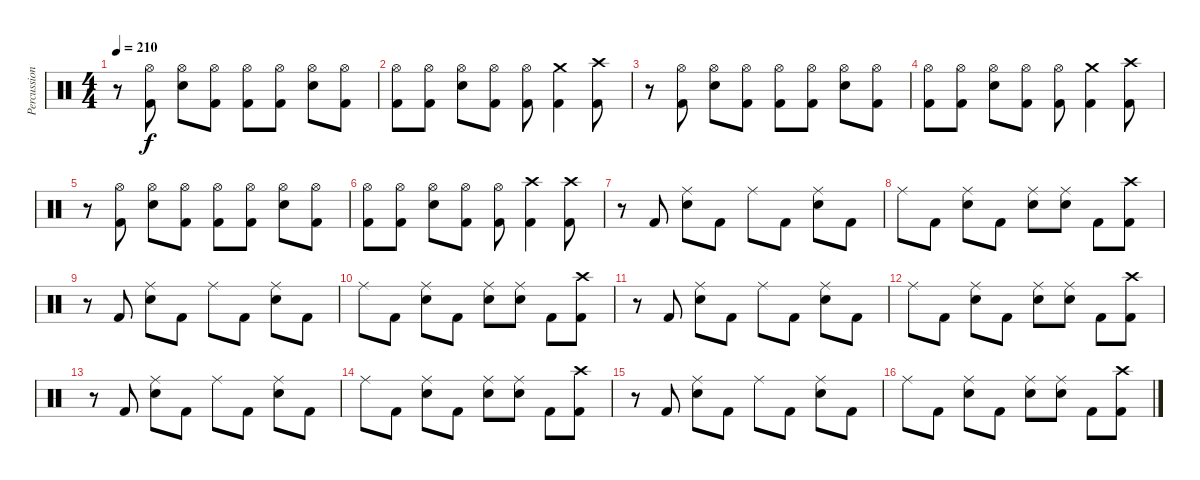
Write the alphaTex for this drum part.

\track ("Percussion" "Percussion") {instrument percussion}
\staff {score}
\articulation defaults
\ts (4 4)
\tempo 210
\clef neutral
\ks c
r.8{dy f} ("Hi-Hat (open)" "Kick (hit) 2").8 ("Hi-Hat (open)" "Electric Snare (hit)").8 ("Hi-Hat (open)" "Kick (hit) 2").8 ("Hi-Hat (open)" "Kick (hit) 2").8 ("Hi-Hat (open)" "Kick (hit) 2").8 ("Hi-Hat (open)" "Electric Snare (hit)").8 ("Hi-Hat (open)" "Kick (hit) 2").8 |
("Hi-Hat (open)" "Kick (hit) 2").8 ("Hi-Hat (open)" "Kick (hit) 2").8 ("Hi-Hat (open)" "Electric Snare (hit)").8 ("Hi-Hat (open)" "Kick (hit) 2").8 ("Hi-Hat (open)" "Kick (hit) 2").8 ("Crash medium (hit)" "Kick (hit) 2").4 ("Crash high (hit)" "Kick (hit) 2").8 |
r.8 ("Hi-Hat (open)" "Kick (hit) 2").8 ("Hi-Hat (open)" "Electric Snare (hit)").8 ("Hi-Hat (open)" "Kick (hit) 2").8 ("Hi-Hat (open)" "Kick (hit) 2").8 ("Hi-Hat (open)" "Kick (hit) 2").8 ("Hi-Hat (open)" "Electric Snare (hit)").8 ("Hi-Hat (open)" "Kick (hit) 2").8 |
("Hi-Hat (open)" "Kick (hit) 2").8 ("Hi-Hat (open)" "Kick (hit) 2").8 ("Hi-Hat (open)" "Electric Snare (hit)").8 ("Hi-Hat (open)" "Kick (hit) 2").8 ("Hi-Hat (open)" "Kick (hit) 2").8 ("Crash medium (hit)" "Kick (hit) 2").4 ("Crash high (hit)" "Kick (hit) 2").8 |
r.8 ("Hi-Hat (open)" "Kick (hit) 2").8 ("Hi-Hat (open)" "Electric Snare (hit)").8 ("Hi-Hat (open)" "Kick (hit) 2").8 ("Hi-Hat (open)" "Kick (hit) 2").8 ("Hi-Hat (open)" "Kick (hit) 2").8 ("Hi-Hat (open)" "Electric Snare (hit)").8 ("Hi-Hat (open)" "Kick (hit) 2").8 |
("Hi-Hat (open)" "Kick (hit) 2").8 ("Hi-Hat (open)" "Kick (hit) 2").8 ("Hi-Hat (open)" "Electric Snare (hit)").8 ("Hi-Hat (open)" "Kick (hit) 2").8 ("Hi-Hat (open)" "Kick (hit) 2").8 ("Crash high (hit)" "Kick (hit) 2").4 ("Crash high (hit)" "Kick (hit) 2").8 |
r.8 "Kick (hit) 2".8 ("Ride (middle)" "Electric Snare (hit)").8 "Kick (hit) 2".8 "Ride (middle)".8 "Kick (hit) 2".8 ("Ride (middle)" "Electric Snare (hit)").8 "Kick (hit) 2".8 |
"Ride (middle)".8 "Kick (hit) 2".8 ("Ride (middle)" "Electric Snare (hit)").8 "Kick (hit) 2".8 ("Ride (middle)" "Electric Snare (hit)").8 ("Ride (middle)" "Electric Snare (hit)").8 "Kick (hit) 2".8 ("Crash high (hit)" "Kick (hit) 2").8 |
r.8 "Kick (hit) 2".8 ("Ride (middle)" "Electric Snare (hit)").8 "Kick (hit) 2".8 "Ride (middle)".8 "Kick (hit) 2".8 ("Ride (middle)" "Electric Snare (hit)").8 "Kick (hit) 2".8 |
"Ride (middle)".8 "Kick (hit) 2".8 ("Ride (middle)" "Electric Snare (hit)").8 "Kick (hit) 2".8 ("Ride (middle)" "Electric Snare (hit)").8 ("Ride (middle)" "Electric Snare (hit)").8 "Kick (hit) 2".8 ("Crash high (hit)" "Kick (hit) 2").8 |
r.8 "Kick (hit) 2".8 ("Ride (middle)" "Electric Snare (hit)").8 "Kick (hit) 2".8 "Ride (middle)".8 "Kick (hit) 2".8 ("Ride (middle)" "Electric Snare (hit)").8 "Kick (hit) 2".8 |
"Ride (middle)".8 "Kick (hit) 2".8 ("Ride (middle)" "Electric Snare (hit)").8 "Kick (hit) 2".8 ("Ride (middle)" "Electric Snare (hit)").8 ("Ride (middle)" "Electric Snare (hit)").8 "Kick (hit) 2".8 ("Crash high (hit)" "Kick (hit) 2").8 |
r.8 "Kick (hit) 2".8 ("Ride (middle)" "Electric Snare (hit)").8 "Kick (hit) 2".8 "Ride (middle)".8 "Kick (hit) 2".8 ("Ride (middle)" "Electric Snare (hit)").8 "Kick (hit) 2".8 |
"Ride (middle)".8 "Kick (hit) 2".8 ("Ride (middle)" "Electric Snare (hit)").8 "Kick (hit) 2".8 ("Ride (middle)" "Electric Snare (hit)").8 ("Ride (middle)" "Electric Snare (hit)").8 "Kick (hit) 2".8 ("Crash high (hit)" "Kick (hit) 2").8 |
r.8 "Kick (hit) 2".8 ("Ride (middle)" "Electric Snare (hit)").8 "Kick (hit) 2".8 "Ride (middle)".8 "Kick (hit) 2".8 ("Ride (middle)" "Electric Snare (hit)").8 "Kick (hit) 2".8 |
"Ride (middle)".8 "Kick (hit) 2".8 ("Ride (middle)" "Electric Snare (hit)").8 "Kick (hit) 2".8 ("Ride (middle)" "Electric Snare (hit)").8 ("Ride (middle)" "Electric Snare (hit)").8 "Kick (hit) 2".8 ("Crash high (hit)" "Kick (hit) 2").8
